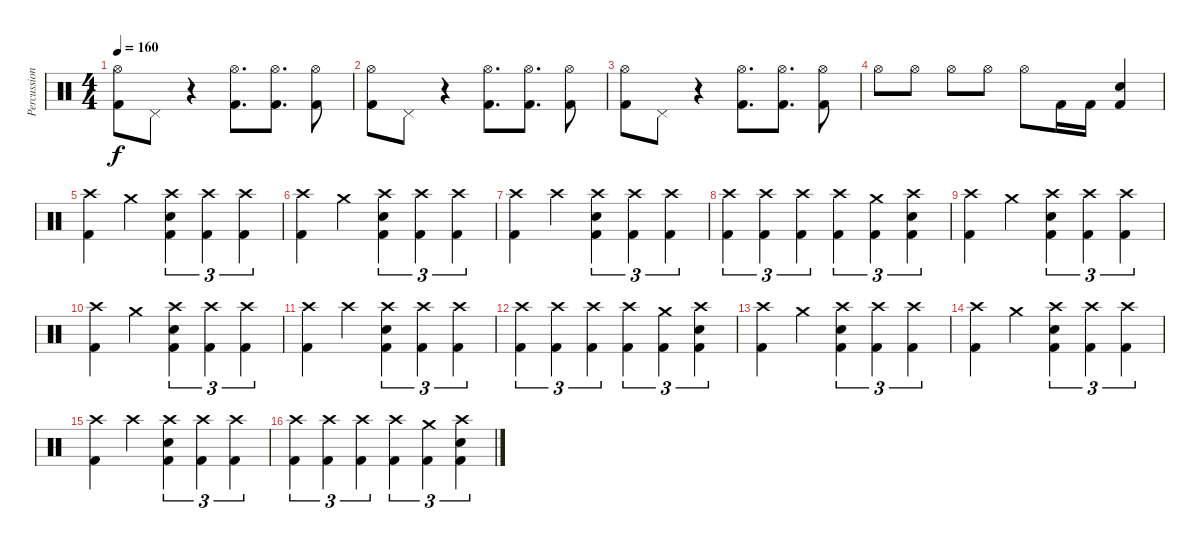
\track ("Percussion" "Percussion") {instrument percussion}
\staff {score}
\articulation defaults
\ts (4 4)
\tempo 160
\clef neutral
\ks c
("Hi-Hat (open)" "Kick (hit) 2").8{dy f} "Pedal Hi-Hat (hit)".8 r.4 ("Hi-Hat (open)" "Kick (hit) 2").8{d} ("Hi-Hat (open)" "Kick (hit) 2").8{d} ("Hi-Hat (open)" "Kick (hit) 2").8 |
("Hi-Hat (open)" "Kick (hit) 2").8 "Pedal Hi-Hat (hit)".8 r.4 ("Hi-Hat (open)" "Kick (hit) 2").8{d} ("Hi-Hat (open)" "Kick (hit) 2").8{d} ("Hi-Hat (open)" "Kick (hit) 2").8 |
("Hi-Hat (open)" "Kick (hit) 2").8 "Pedal Hi-Hat (hit)".8 r.4 ("Hi-Hat (open)" "Kick (hit) 2").8{d} ("Hi-Hat (open)" "Kick (hit) 2").8{d} ("Hi-Hat (open)" "Kick (hit) 2").8 |
"Hi-Hat (open)".8 "Hi-Hat (open)".8 "Hi-Hat (open)".8 "Hi-Hat (open)".8 "Hi-Hat (open)".8 "Kick (hit) 2".16 "Kick (hit) 2".16 ("Electric Snare (hit)" "Kick (hit) 2").4 |
("Crash high (hit)" "Kick (hit) 2").4 "Crash medium (hit)".4 ("Crash high (hit)" "Electric Snare (hit)" "Kick (hit) 2").4{tu (3 2)} ("Crash high (hit)" "Kick (hit) 2").4{tu (3 2)} ("Crash high (hit)" "Kick (hit) 2").4{tu (3 2)} |
("Crash high (hit)" "Kick (hit) 2").4 "Crash medium (hit)".4 ("Crash high (hit)" "Electric Snare (hit)" "Kick (hit) 2").4{tu (3 2)} ("Crash high (hit)" "Kick (hit) 2").4{tu (3 2)} ("Crash high (hit)" "Kick (hit) 2").4{tu (3 2)} |
("Crash high (hit)" "Kick (hit) 2").4 "Crash high (hit)".4 ("Crash high (hit)" "Electric Snare (hit)" "Kick (hit) 2").4{tu (3 2)} ("Crash high (hit)" "Kick (hit) 2").4{tu (3 2)} ("Crash high (hit)" "Kick (hit) 2").4{tu (3 2)} |
("Crash high (hit)" "Kick (hit) 2").4{tu (3 2)} ("Crash high (hit)" "Kick (hit) 2").4{tu (3 2)} ("Crash high (hit)" "Kick (hit) 2").4{tu (3 2)} ("Crash high (hit)" "Kick (hit) 2").4{tu (3 2)} ("Crash medium (hit)" "Kick (hit) 2").4{tu (3 2)} ("Crash high (hit)" "Electric Snare (hit)" "Kick (hit) 2").4{tu (3 2)} |
("Crash high (hit)" "Kick (hit) 2").4 "Crash medium (hit)".4 ("Crash high (hit)" "Electric Snare (hit)" "Kick (hit) 2").4{tu (3 2)} ("Crash high (hit)" "Kick (hit) 2").4{tu (3 2)} ("Crash high (hit)" "Kick (hit) 2").4{tu (3 2)} |
("Crash high (hit)" "Kick (hit) 2").4 "Crash medium (hit)".4 ("Crash high (hit)" "Electric Snare (hit)" "Kick (hit) 2").4{tu (3 2)} ("Crash high (hit)" "Kick (hit) 2").4{tu (3 2)} ("Crash high (hit)" "Kick (hit) 2").4{tu (3 2)} |
("Crash high (hit)" "Kick (hit) 2").4 "Crash high (hit)".4 ("Crash high (hit)" "Electric Snare (hit)" "Kick (hit) 2").4{tu (3 2)} ("Crash high (hit)" "Kick (hit) 2").4{tu (3 2)} ("Crash high (hit)" "Kick (hit) 2").4{tu (3 2)} |
("Crash high (hit)" "Kick (hit) 2").4{tu (3 2)} ("Crash high (hit)" "Kick (hit) 2").4{tu (3 2)} ("Crash high (hit)" "Kick (hit) 2").4{tu (3 2)} ("Crash high (hit)" "Kick (hit) 2").4{tu (3 2)} ("Crash medium (hit)" "Kick (hit) 2").4{tu (3 2)} ("Crash high (hit)" "Electric Snare (hit)" "Kick (hit) 2").4{tu (3 2)} |
("Crash high (hit)" "Kick (hit) 2").4 "Crash medium (hit)".4 ("Crash high (hit)" "Electric Snare (hit)" "Kick (hit) 2").4{tu (3 2)} ("Crash high (hit)" "Kick (hit) 2").4{tu (3 2)} ("Crash high (hit)" "Kick (hit) 2").4{tu (3 2)} |
("Crash high (hit)" "Kick (hit) 2").4 "Crash medium (hit)".4 ("Crash high (hit)" "Electric Snare (hit)" "Kick (hit) 2").4{tu (3 2)} ("Crash high (hit)" "Kick (hit) 2").4{tu (3 2)} ("Crash high (hit)" "Kick (hit) 2").4{tu (3 2)} |
("Crash high (hit)" "Kick (hit) 2").4 "Crash high (hit)".4 ("Crash high (hit)" "Electric Snare (hit)" "Kick (hit) 2").4{tu (3 2)} ("Crash high (hit)" "Kick (hit) 2").4{tu (3 2)} ("Crash high (hit)" "Kick (hit) 2").4{tu (3 2)} |
("Crash high (hit)" "Kick (hit) 2").4{tu (3 2)} ("Crash high (hit)" "Kick (hit) 2").4{tu (3 2)} ("Crash high (hit)" "Kick (hit) 2").4{tu (3 2)} ("Crash high (hit)" "Kick (hit) 2").4{tu (3 2)} ("Crash medium (hit)" "Kick (hit) 2").4{tu (3 2)} ("Crash high (hit)" "Electric Snare (hit)" "Kick (hit) 2").4{tu (3 2)}
